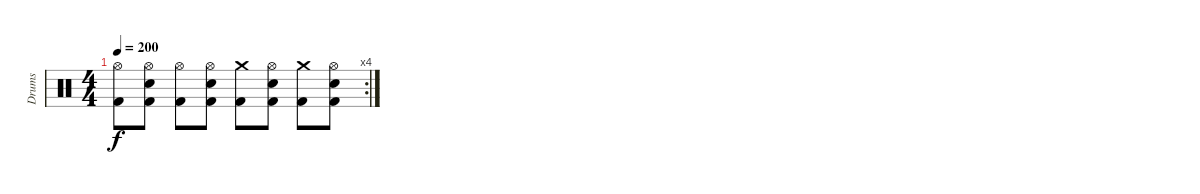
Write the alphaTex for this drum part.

\track ("Drums" "Drums") {instrument percussion}
\staff {score}
\articulation defaults
\rc 4
\ts (4 4)
\tempo 200
\clef neutral
\ks c
("Hi-Hat (open)" "Kick (hit) 2").8{dy f} ("Hi-Hat (open)" "Electric Snare (hit)" "Kick (hit) 2").8 ("Hi-Hat (open)" "Kick (hit) 2").8 ("Hi-Hat (open)" "Electric Snare (hit)" "Kick (hit) 2").8 ("Crash medium (hit)" "Kick (hit) 2").8 ("Hi-Hat (open)" "Electric Snare (hit)" "Kick (hit) 2").8 ("Crash medium (hit)" "Kick (hit) 2").8 ("Hi-Hat (open)" "Electric Snare (hit)" "Kick (hit) 2").8
